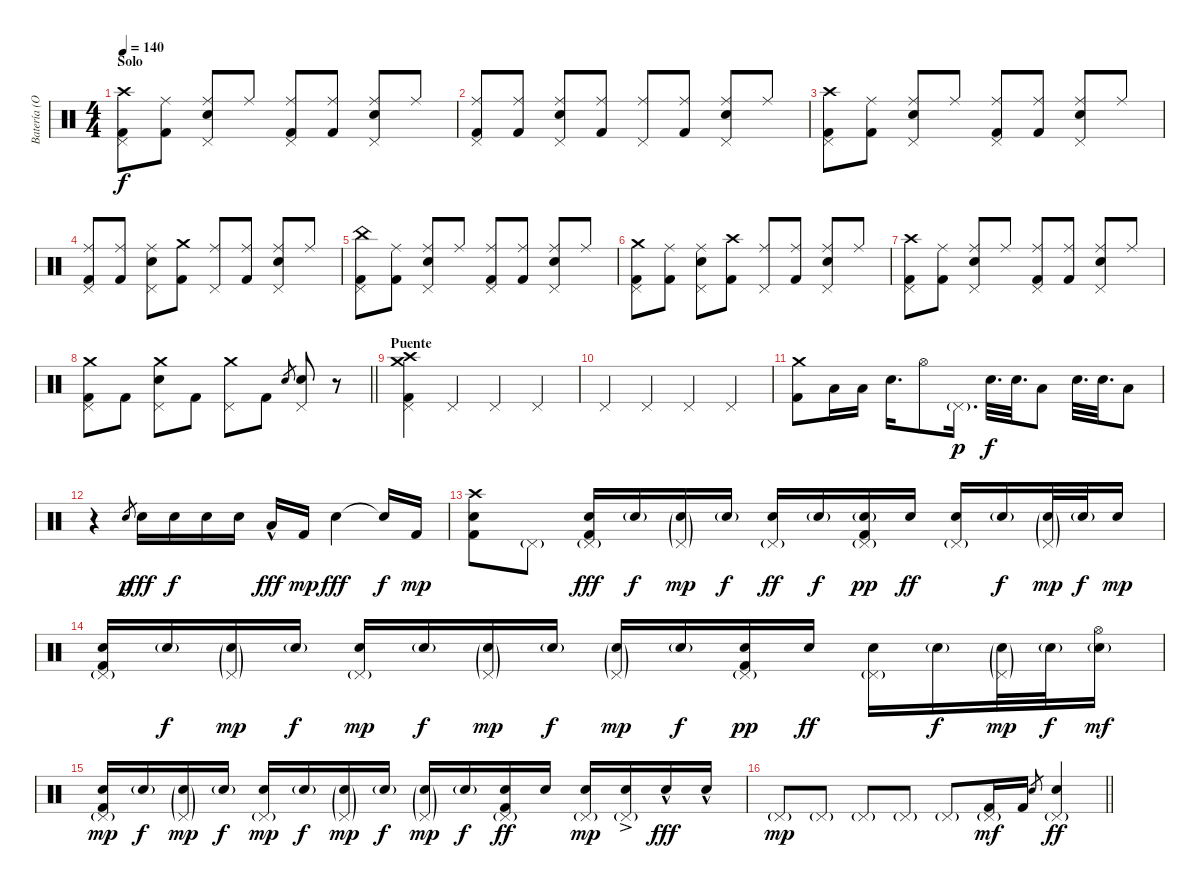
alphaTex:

\track ("Batería (Oxi)" "Batería (O") {instrument percussion}
\staff {score}
\articulation defaults
\ts (4 4)
\section ("" "Solo")
\tempo 140
\clef neutral
\ks c
("Crash high (hit)" "Pedal Hi-Hat (hit)" "Kick (hit) 2").8{dy f} ("Ride (middle)" "Kick (hit) 2").8 ("Ride (middle)" "Pedal Hi-Hat (hit)" "Electric Snare (hit)").8 "Ride (middle)".8 ("Ride (middle)" "Pedal Hi-Hat (hit)" "Kick (hit) 2").8 ("Ride (middle)" "Kick (hit) 2").8 ("Ride (middle)" "Pedal Hi-Hat (hit)" "Electric Snare (hit)").8 "Ride (middle)".8 |
("Ride (middle)" "Pedal Hi-Hat (hit)" "Kick (hit) 2").8 ("Ride (middle)" "Kick (hit) 2").8 ("Ride (middle)" "Pedal Hi-Hat (hit)" "Electric Snare (hit)").8 ("Ride (middle)" "Kick (hit) 2").8 ("Ride (middle)" "Pedal Hi-Hat (hit)").8 ("Ride (middle)" "Kick (hit) 2").8 ("Ride (middle)" "Pedal Hi-Hat (hit)" "Electric Snare (hit)").8 "Ride (middle)".8 |
("Crash high (hit)" "Pedal Hi-Hat (hit)" "Kick (hit) 2").8 ("Ride (middle)" "Kick (hit) 2").8 ("Ride (middle)" "Pedal Hi-Hat (hit)" "Electric Snare (hit)").8 "Ride (middle)".8 ("Ride (middle)" "Pedal Hi-Hat (hit)" "Kick (hit) 2").8 ("Ride (middle)" "Kick (hit) 2").8 ("Ride (middle)" "Pedal Hi-Hat (hit)" "Electric Snare (hit)").8 "Ride (middle)".8 |
("Ride (middle)" "Pedal Hi-Hat (hit)" "Kick (hit) 2").8 ("Ride (middle)" "Kick (hit) 2").8 ("Ride (middle)" "Pedal Hi-Hat (hit)" "Electric Snare (hit)").8 ("Crash medium (hit)" "Kick (hit) 2").8 ("Ride (middle)" "Pedal Hi-Hat (hit)").8 ("Ride (middle)" "Kick (hit) 2").8 ("Ride (middle)" "Pedal Hi-Hat (hit)" "Electric Snare (hit)").8 "Ride (middle)".8 |
("China (hit)" "Pedal Hi-Hat (hit)" "Kick (hit) 2").8 ("Ride (middle)" "Kick (hit) 2").8 ("Ride (middle)" "Pedal Hi-Hat (hit)" "Electric Snare (hit)").8 "Ride (middle)".8 ("Ride (middle)" "Pedal Hi-Hat (hit)" "Kick (hit) 2").8 ("Ride (middle)" "Kick (hit) 2").8 ("Ride (middle)" "Pedal Hi-Hat (hit)" "Electric Snare (hit)").8 "Ride (middle)".8 |
("Crash medium (hit)" "Pedal Hi-Hat (hit)" "Kick (hit) 2").8 ("Ride (middle)" "Kick (hit) 2").8 ("Ride (middle)" "Pedal Hi-Hat (hit)" "Electric Snare (hit)").8 ("Crash high (hit)" "Kick (hit) 2").8 ("Ride (middle)" "Pedal Hi-Hat (hit)").8 ("Ride (middle)" "Kick (hit) 2").8 ("Ride (middle)" "Pedal Hi-Hat (hit)" "Electric Snare (hit)").8 "Ride (middle)".8 |
("Crash high (hit)" "Pedal Hi-Hat (hit)" "Kick (hit) 2").8 ("Ride (middle)" "Kick (hit) 2").8 ("Ride (middle)" "Pedal Hi-Hat (hit)" "Electric Snare (hit)").8 "Ride (middle)".8 ("Ride (middle)" "Pedal Hi-Hat (hit)" "Kick (hit) 2").8 ("Ride (middle)" "Kick (hit) 2").8 ("Ride (middle)" "Pedal Hi-Hat (hit)" "Electric Snare (hit)").8 "Ride (middle)".8 |
\barLineRight lightlight
("Crash medium (hit)" "Pedal Hi-Hat (hit)" "Kick (hit) 2").8 "Kick (hit) 2".8 ("Crash medium (hit)" "Pedal Hi-Hat (hit)" "Electric Snare (hit)").8 "Kick (hit) 2".8 ("Crash medium (hit)" "Pedal Hi-Hat (hit)").8 "Kick (hit) 2".8 "Electric Snare (hit)".8{gr} ("Pedal Hi-Hat (hit)" "Electric Snare (hit)").8 r.8 |
\section ("" "Puente")
("Crash medium (hit)" "Crash high (hit)" "Pedal Hi-Hat (hit)" "Kick (hit) 2").4 "Pedal Hi-Hat (hit)".4 "Pedal Hi-Hat (hit)".4 "Pedal Hi-Hat (hit)".4 |
"Pedal Hi-Hat (hit)".4 "Pedal Hi-Hat (hit)".4 "Pedal Hi-Hat (hit)".4 "Pedal Hi-Hat (hit)".4 |
("Crash medium (hit)" "Kick (hit) 2").8 "Low Tom (hit)".16 "Low Tom (hit)".16 "Electric Snare (hit)".16{d} "Hi-Hat (open)".8 "Pedal Hi-Hat (hit)"{g}.16{d dy p} "Electric Snare (hit)".32{d dy f} "Electric Snare (hit)".32{d} "Low Tom (hit)".8 "Electric Snare (hit)".32{d} "Electric Snare (hit)".32{d} "Low Tom (hit)".8 |
r.4 "Electric Snare (hit)".8{gr dy p} "Electric Snare (hit)".16{dy fff} "Electric Snare (hit)".16{dy f} "Electric Snare (hit)".16 "Electric Snare (hit)".16 "Low Tom (hit)"{hac}.16{dy fff} "Kick (hit) 2".16{dy mp} "Electric Snare (hit)".4{dy fff} "Snare (hit)"{t}.16{dy f} "Kick (hit) 2".16{dy mp} |
("Crash high (hit)" "Electric Snare (hit)" "Kick (hit) 2").8 "Pedal Hi-Hat (hit)"{g}.8 ("Pedal Hi-Hat (hit)"{g} "Electric Snare (hit)" "Kick (hit) 2").16{dy fff} "Electric Snare (hit)"{g}.16{dy f} ("Pedal Hi-Hat (hit)"{g} "Electric Snare (hit)"{g}).16{dy mp} "Electric Snare (hit)"{g}.16{dy f} ("Pedal Hi-Hat (hit)"{g} "Electric Snare (hit)").16{dy ff} "Electric Snare (hit)"{g}.16{dy f} ("Pedal Hi-Hat (hit)"{g} "Electric Snare (hit)"{g} "Kick (hit) 2").16{dy pp} "Electric Snare (hit)".16{dy ff} ("Pedal Hi-Hat (hit)"{g} "Electric Snare (hit)").16 "Electric Snare (hit)"{g}.16{dy f} ("Pedal Hi-Hat (hit)"{g} "Electric Snare (hit)"{g}).32{dy mp} "Electric Snare (hit)"{g}.32{dy f} "Electric Snare (hit)".16{dy mp} |
("Pedal Hi-Hat (hit)"{g} "Electric Snare (hit)" "Kick (hit) 2").16 "Electric Snare (hit)"{g}.16{dy f} ("Pedal Hi-Hat (hit)"{g} "Electric Snare (hit)"{g}).16{dy mp} "Electric Snare (hit)"{g}.16{dy f} ("Pedal Hi-Hat (hit)"{g} "Electric Snare (hit)").16{dy mp} "Electric Snare (hit)"{g}.16{dy f} ("Pedal Hi-Hat (hit)"{g} "Electric Snare (hit)"{g}).16{dy mp} "Electric Snare (hit)"{g}.16{dy f} ("Pedal Hi-Hat (hit)"{g} "Electric Snare (hit)"{g}).16{dy mp} "Electric Snare (hit)"{g}.16{dy f} ("Pedal Hi-Hat (hit)"{g} "Electric Snare (hit)" "Kick (hit) 2").16{dy pp} "Electric Snare (hit)".16{dy ff} ("Pedal Hi-Hat (hit)"{g} "Electric Snare (hit)").16 "Electric Snare (hit)"{g}.16{dy f} ("Pedal Hi-Hat (hit)"{g} "Electric Snare (hit)"{g}).32{dy mp} "Electric Snare (hit)"{g}.32{dy f} ("Hi-Hat (open)" "Electric Snare (hit)"{g}).16{dy mf} |
("Pedal Hi-Hat (hit)"{g} "Electric Snare (hit)" "Kick (hit) 2").16{dy mp} "Electric Snare (hit)"{g}.16{dy f} ("Pedal Hi-Hat (hit)"{g} "Electric Snare (hit)"{g}).16{dy mp} "Electric Snare (hit)"{g}.16{dy f} ("Pedal Hi-Hat (hit)"{g} "Electric Snare (hit)").16{dy mp} "Electric Snare (hit)"{g}.16{dy f} ("Pedal Hi-Hat (hit)"{g} "Electric Snare (hit)"{g}).16{dy mp} "Electric Snare (hit)"{g}.16{dy f} ("Pedal Hi-Hat (hit)"{g} "Electric Snare (hit)"{g}).16{dy mp} "Electric Snare (hit)"{g}.16{dy f} ("Pedal Hi-Hat (hit)"{g} "Electric Snare (hit)" "Kick (hit) 2").16{dy ff} "Electric Snare (hit)".16 ("Pedal Hi-Hat (hit)"{g} "Electric Snare (hit)").16{dy mp} ("Pedal Hi-Hat (hit)"{g} "Electric Snare (hit)"{ac}).16 "Electric Snare (hit)"{hac}.16{dy fff} "Electric Snare (hit)"{hac}.16 |
\barLineRight lightlight "Pedal Hi-Hat (hit)"{g}.8{dy mp} "Pedal Hi-Hat (hit)"{g}.8 "Pedal Hi-Hat (hit)"{g}.8 "Pedal Hi-Hat (hit)"{g}.8 "Pedal Hi-Hat (hit)"{g}.8
("Pedal Hi-Hat (hit)"{g} "Kick (hit) 2").16{dy mf} "Kick (hit) 2".16 "Electric Snare (hit)".8{gr} ("Pedal Hi-Hat (hit)"{g} "Electric Snare (hit)").4{dy ff}
